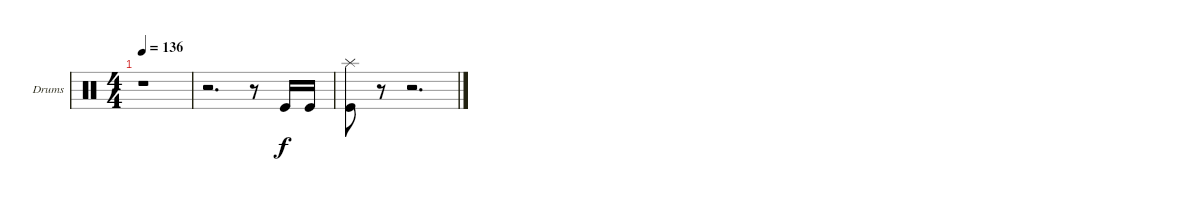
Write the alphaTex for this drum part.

\defaultSystemsLayout 4
\bracketExtendMode groupsimilarinstruments
\firstSystemTrackNameOrientation horizontal
\otherSystemsTrackNameOrientation horizontal
\defaultBarNumberDisplay FirstOfSystem
\track ("Drumkit" "Drums") {multiBarRest instrument percussion}
\staff {score}
\articulation defaults
\ts (4 4)
\tempo 136
\clef neutral
\ks c
r.1{dy f} |
r.2{d} r.8 "Kick (hit)".16 "Kick (hit)".16 |
("Kick (hit)" "Splash (hit)").8 r.8 r.2{d}
